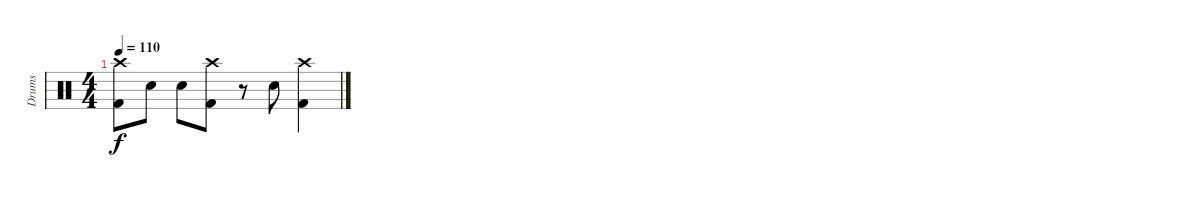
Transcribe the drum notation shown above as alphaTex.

\track ("Drums" "Drums") {instrument percussion}
\staff {score}
\articulation defaults
\ts (4 4)
\tempo 110
\clef neutral
\ks c
("Crash high (hit)" "Kick (hit) 2").8{dy f} "Snare (hit) 2".8 "Snare (hit) 2".8 ("Crash high (hit)" "Kick (hit) 2").8 r.8 "Snare (hit) 2".8 ("Crash high (hit)" "Kick (hit) 2").4
